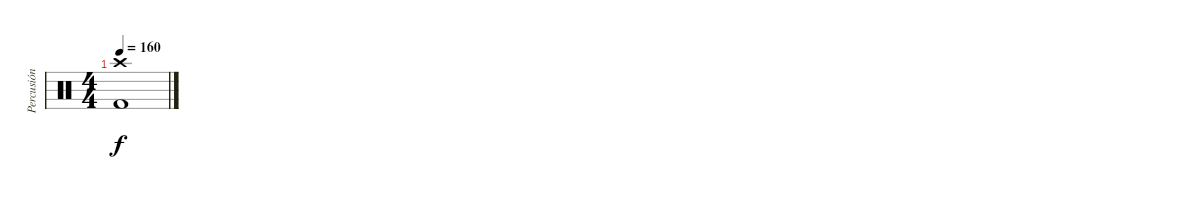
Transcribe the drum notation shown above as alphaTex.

\track ("Percusión" "Percusión") {instrument percussion}
\staff {score}
\articulation defaults
\ts (4 4)
\tempo 160
\clef neutral
\ks c
("Crash high (hit)" "Kick (hit) 2").1{dy f}
